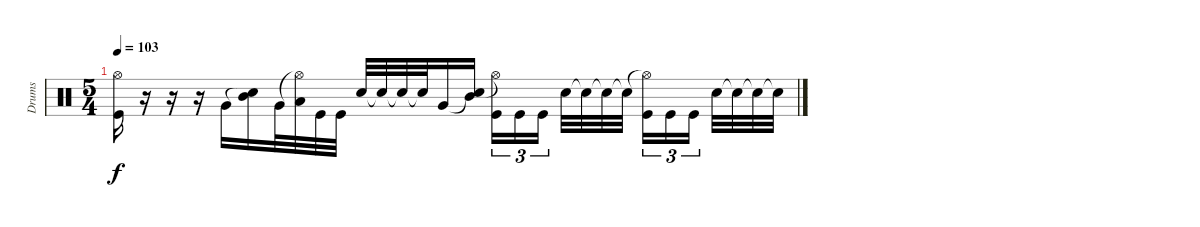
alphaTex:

\track ("Drums" "Drums") {instrument percussion}
\staff {score}
\articulation defaults
\ts (5 4)
\tempo 103
\clef neutral
\ks c
("Hi-Hat (open)" "Kick (hit)").16{dy f} r.16 r.16 r.16 "Very Low Tom (hit)".16 ("Snare (hit)"{t} "Mid Tom (hit)").16 "Very Low Tom (hit)".32 ("Hi-Hat (open)"{t} "Low Floor Tom (hit)").32 "Kick (hit)".32 "Kick (hit)".32 "Electric Snare (hit)".32 "Snare (hit)"{t}.32 "Snare (hit)"{t}.32 "Snare (hit)"{t}.32 "Very Low Tom (hit)".16 ("Snare (hit)"{t} "Mid Tom (hit)").16 ("Hi-Hat (open)"{t} "Kick (hit)").16{tu (3 2)} "Kick (hit)".16{tu (3 2)} "Kick (hit)".16{tu (3 2)} "Electric Snare (hit)".32 "Snare (hit)"{t}.32 "Snare (hit)"{t}.32 "Snare (hit)"{t}.32 ("Hi-Hat (open)"{t} "Kick (hit)").16{tu (3 2)} "Kick (hit)".16{tu (3 2)} "Kick (hit)".16{tu (3 2)} "Electric Snare (hit)".32 "Snare (hit)"{t}.32 "Snare (hit)"{t}.32 "Snare (hit)"{t}.32
